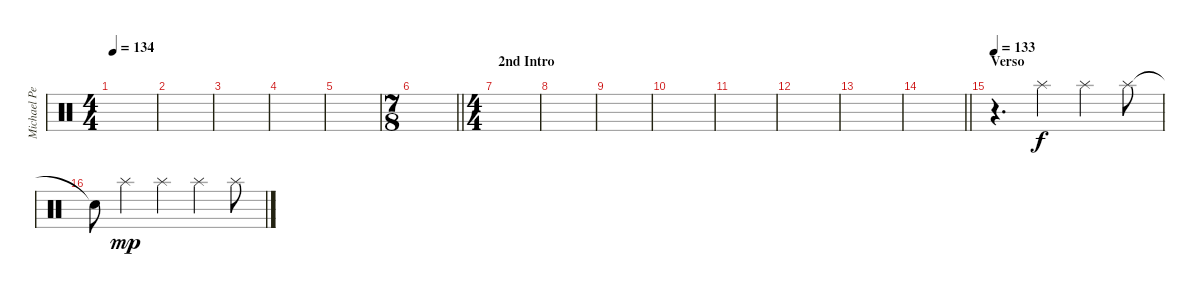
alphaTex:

\track ("Michael Pedicone [Drums Overdubbed]" "Michael Pe") {instrument percussion}
\staff
\articulation defaults
\ts (4 4)
\tempo 134
\clef neutral
\ks c
|
|
|
|
|
\ts (7 8)
\barLineRight lightlight
|
\ts (4 4)
\section ("" "2nd Intro")
|
|
|
|
|
|
|
\barLineRight lightlight
|
\section ("" "Verso")
\tempo 133
r.4{d} "Splash (hit)".4 "Splash (hit)".4 "Splash (hit)".8 |
"Snare (hit)"{t}.8{dy f} "Splash (hit)".4{dy mp} "Splash (hit)".4 "Splash (hit)".4 "Splash (hit)".8
